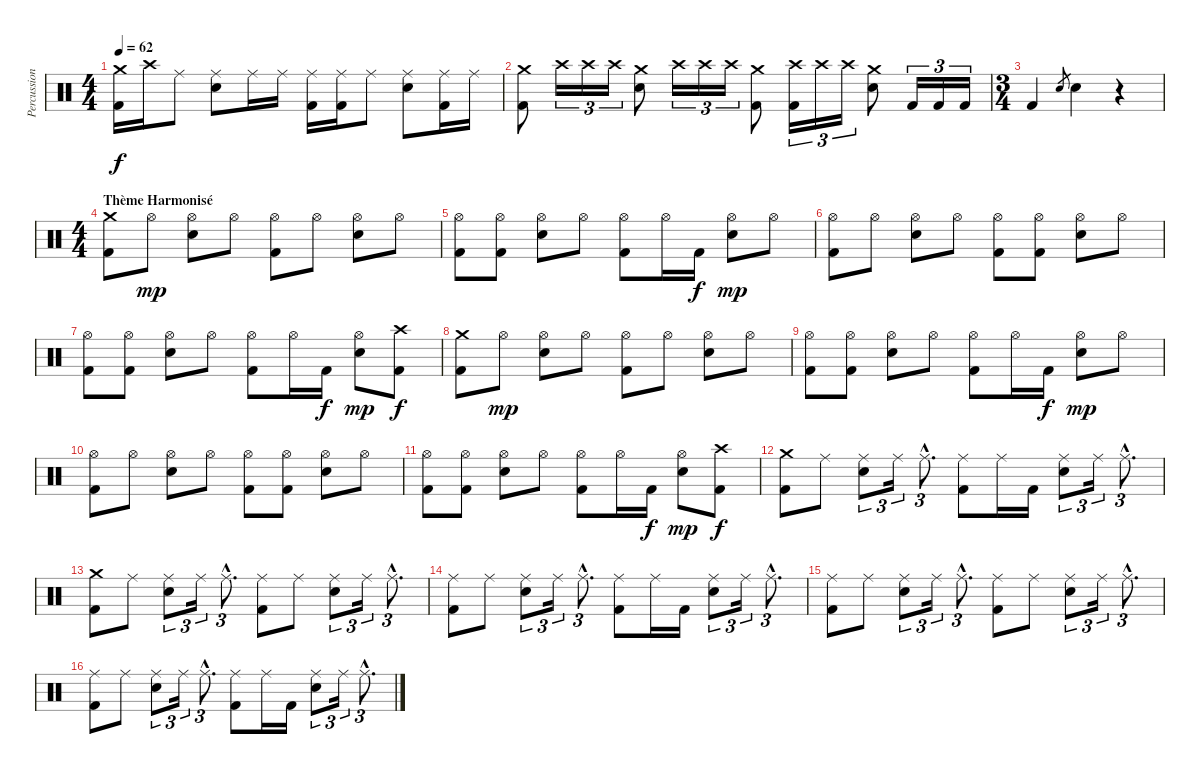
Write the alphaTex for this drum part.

\track ("Percussions" "Percussion") {instrument percussion}
\staff {score}
\articulation defaults
\ts (4 4)
\tempo 62
\clef neutral
\ks c
("Crash medium (hit)" "Kick (hit) 2").16{dy f} "Crash high (hit)".16 "Ride (middle)".8 ("Ride (middle)" "Snare (hit) 2").8 "Ride (middle)".16 "Ride (middle)".16 ("Ride (middle)" "Kick (hit) 2").16 ("Ride (middle)" "Kick (hit) 2").16 "Ride (middle)".8 ("Ride (middle)" "Snare (hit) 2").8 ("Ride (middle)" "Kick (hit) 2").16 "Ride (middle)".16 |
("Crash medium (hit)" "Kick (hit) 2").8 "Crash high (hit)".16{tu (3 2)} "Crash high (hit)".16{tu (3 2)} "Crash high (hit)".16{tu (3 2)} ("Crash medium (hit)" "Snare (hit) 2").8 "Crash high (hit)".16{tu (3 2)} "Crash high (hit)".16{tu (3 2)} "Crash high (hit)".16{tu (3 2)} ("Crash medium (hit)" "Kick (hit) 2").8 ("Crash high (hit)" "Kick (hit) 2").16{tu (3 2)} "Crash high (hit)".16{tu (3 2)} "Crash high (hit)".16{tu (3 2)} ("Crash medium (hit)" "Snare (hit) 2").8 "Kick (hit) 2".16{tu (3 2)} "Kick (hit) 2".16{tu (3 2)} "Kick (hit) 2".16{tu (3 2)} |
\ts (3 4)
"Kick (hit) 2".4 "Snare (hit) 2".8{gr} "Snare (hit) 2".4 r.4 |
\ts (4 4)
\section ("" "Thème Harmonisé")
("Crash medium (hit)" "Kick (hit) 2").8 "Hi-Hat (open)".8{dy mp} ("Hi-Hat (open)" "Snare (hit) 2").8 "Hi-Hat (open)".8 ("Hi-Hat (open)" "Kick (hit) 2").8 "Hi-Hat (open)".8 ("Hi-Hat (open)" "Snare (hit) 2").8 "Hi-Hat (open)".8 |
("Hi-Hat (open)" "Kick (hit) 2").8 ("Hi-Hat (open)" "Kick (hit) 2").8 ("Hi-Hat (open)" "Snare (hit) 2").8 "Hi-Hat (open)".8 ("Hi-Hat (open)" "Kick (hit) 2").8 "Hi-Hat (open)".16 "Kick (hit) 2".16{dy f} ("Hi-Hat (open)" "Snare (hit) 2").8{dy mp} "Hi-Hat (open)".8 |
("Hi-Hat (open)" "Kick (hit) 2").8 "Hi-Hat (open)".8 ("Hi-Hat (open)" "Snare (hit) 2").8 "Hi-Hat (open)".8 ("Hi-Hat (open)" "Kick (hit) 2").8 ("Hi-Hat (open)" "Kick (hit) 2").8 ("Hi-Hat (open)" "Snare (hit) 2").8 "Hi-Hat (open)".8 |
("Hi-Hat (open)" "Kick (hit) 2").8 ("Hi-Hat (open)" "Kick (hit) 2").8 ("Hi-Hat (open)" "Snare (hit) 2").8 "Hi-Hat (open)".8 ("Hi-Hat (open)" "Kick (hit) 2").8 "Hi-Hat (open)".16 "Kick (hit) 2".16{dy f} ("Hi-Hat (open)" "Snare (hit) 2").8{dy mp} ("Crash high (hit)" "Kick (hit) 2").8{dy f} |
("Crash medium (hit)" "Kick (hit) 2").8 "Hi-Hat (open)".8{dy mp} ("Hi-Hat (open)" "Snare (hit) 2").8 "Hi-Hat (open)".8 ("Hi-Hat (open)" "Kick (hit) 2").8 "Hi-Hat (open)".8 ("Hi-Hat (open)" "Snare (hit) 2").8 "Hi-Hat (open)".8 |
("Hi-Hat (open)" "Kick (hit) 2").8 ("Hi-Hat (open)" "Kick (hit) 2").8 ("Hi-Hat (open)" "Snare (hit) 2").8 "Hi-Hat (open)".8 ("Hi-Hat (open)" "Kick (hit) 2").8 "Hi-Hat (open)".16 "Kick (hit) 2".16{dy f} ("Hi-Hat (open)" "Snare (hit) 2").8{dy mp} "Hi-Hat (open)".8 |
("Hi-Hat (open)" "Kick (hit) 2").8 "Hi-Hat (open)".8 ("Hi-Hat (open)" "Snare (hit) 2").8 "Hi-Hat (open)".8 ("Hi-Hat (open)" "Kick (hit) 2").8 ("Hi-Hat (open)" "Kick (hit) 2").8 ("Hi-Hat (open)" "Snare (hit) 2").8 "Hi-Hat (open)".8 |
("Hi-Hat (open)" "Kick (hit) 2").8 ("Hi-Hat (open)" "Kick (hit) 2").8 ("Hi-Hat (open)" "Snare (hit) 2").8 "Hi-Hat (open)".8 ("Hi-Hat (open)" "Kick (hit) 2").8 "Hi-Hat (open)".16 "Kick (hit) 2".16{dy f} ("Hi-Hat (open)" "Snare (hit) 2").8{dy mp} ("Crash high (hit)" "Kick (hit) 2").8{dy f} |
("Crash medium (hit)" "Kick (hit) 2").8 "Ride (middle)".8 ("Ride (middle)" "Snare (hit) 2").8{tu (3 2)} "Ride (middle)".16{tu (3 2)} "Ride (middle)"{hac}.8{d tu (3 2)} ("Ride (middle)" "Kick (hit) 2").8 "Ride (middle)".16 "Kick (hit) 2".16 ("Ride (middle)" "Snare (hit) 2").8{tu (3 2)} "Ride (middle)".16{tu (3 2)} "Ride (middle)"{hac}.8{d tu (3 2)} |
("Crash medium (hit)" "Kick (hit) 2").8 "Ride (middle)".8 ("Ride (middle)" "Snare (hit) 2").8{tu (3 2)} "Ride (middle)".16{tu (3 2)} "Ride (middle)"{hac}.8{d tu (3 2)} ("Ride (middle)" "Kick (hit) 2").8 "Ride (middle)".8 ("Ride (middle)" "Snare (hit) 2").8{tu (3 2)} "Ride (middle)".16{tu (3 2)} "Ride (middle)"{hac}.8{d tu (3 2)} |
("Ride (middle)" "Kick (hit) 2").8 "Ride (middle)".8 ("Ride (middle)" "Snare (hit) 2").8{tu (3 2)} "Ride (middle)".16{tu (3 2)} "Ride (middle)"{hac}.8{d tu (3 2)} ("Ride (middle)" "Kick (hit) 2").8 "Ride (middle)".16 "Kick (hit) 2".16 ("Ride (middle)" "Snare (hit) 2").8{tu (3 2)} "Ride (middle)".16{tu (3 2)} "Ride (middle)"{hac}.8{d tu (3 2)} |
("Ride (middle)" "Kick (hit) 2").8 "Ride (middle)".8 ("Ride (middle)" "Snare (hit) 2").8{tu (3 2)} "Ride (middle)".16{tu (3 2)} "Ride (middle)"{hac}.8{d tu (3 2)} ("Ride (middle)" "Kick (hit) 2").8 "Ride (middle)".8 ("Ride (middle)" "Snare (hit) 2").8{tu (3 2)} "Ride (middle)".16{tu (3 2)} "Ride (middle)"{hac}.8{d tu (3 2)} |
("Ride (middle)" "Kick (hit) 2").8 "Ride (middle)".8 ("Ride (middle)" "Snare (hit) 2").8{tu (3 2)} "Ride (middle)".16{tu (3 2)} "Ride (middle)"{hac}.8{d tu (3 2)} ("Ride (middle)" "Kick (hit) 2").8 "Ride (middle)".16 "Kick (hit) 2".16 ("Ride (middle)" "Snare (hit) 2").8{tu (3 2)} "Ride (middle)".16{tu (3 2)} "Ride (middle)"{hac}.8{d tu (3 2)}
